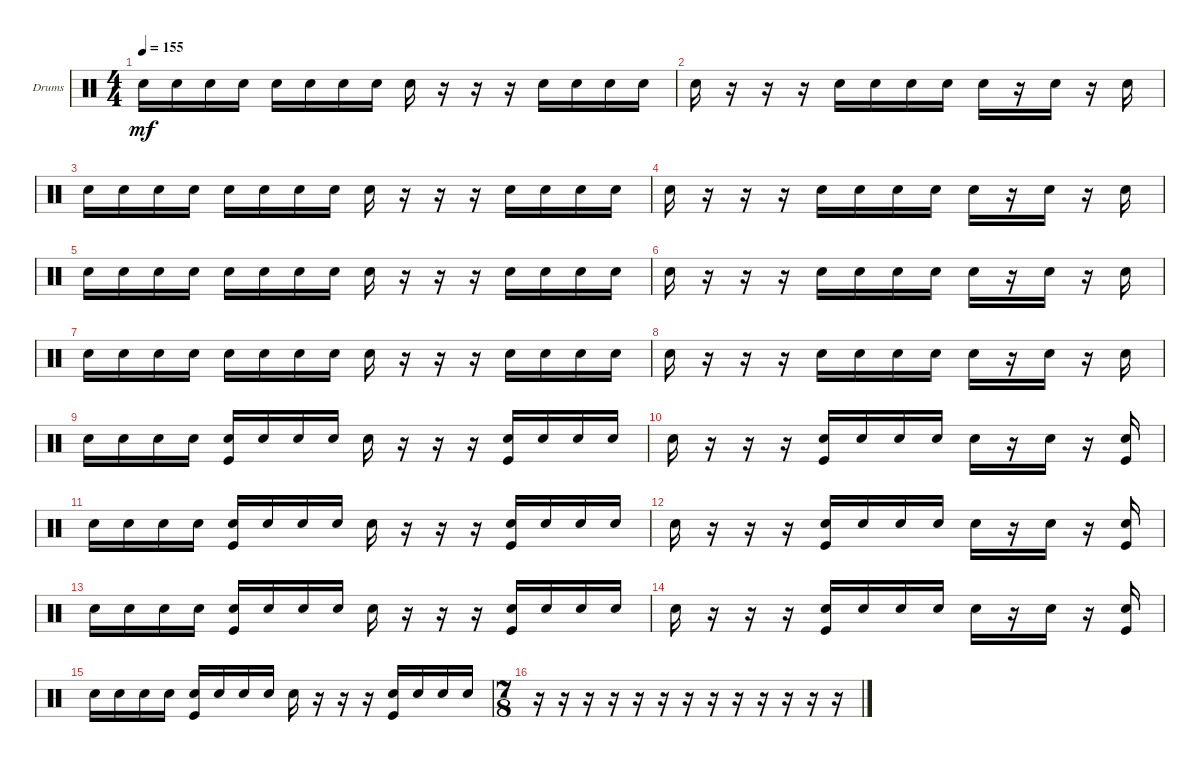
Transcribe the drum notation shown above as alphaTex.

\defaultSystemsLayout 4
\bracketExtendMode groupsimilarinstruments
\firstSystemTrackNameOrientation horizontal
\otherSystemsTrackNameOrientation horizontal
\track ("Drumkit" "Drums") {instrument percussion}
\staff {score}
\articulation defaults
\ts (4 4)
\tempo 155
\clef neutral
\ks c "Snare (hit) 2".16{dy mf} "Snare (hit) 2".16 "Snare (hit) 2".16 "Snare (hit) 2".16 "Snare (hit) 2".16 "Snare (hit) 2".16 "Snare (hit) 2".16 "Snare (hit) 2".16 "Snare (hit) 2".16
r.16 r.16 r.16 "Snare (hit) 2".16 "Snare (hit) 2".16 "Snare (hit) 2".16 "Snare (hit) 2".16 |
"Snare (hit) 2".16 r.16 r.16 r.16 "Snare (hit) 2".16 "Snare (hit) 2".16 "Snare (hit) 2".16 "Snare (hit) 2".16 "Snare (hit) 2".16 r.16 "Snare (hit) 2".16 r.16 "Snare (hit) 2".16 |
"Snare (hit) 2".16 "Snare (hit) 2".16 "Snare (hit) 2".16 "Snare (hit) 2".16 "Snare (hit) 2".16 "Snare (hit) 2".16 "Snare (hit) 2".16 "Snare (hit) 2".16 "Snare (hit) 2".16 r.16 r.16 r.16 "Snare (hit) 2".16 "Snare (hit) 2".16 "Snare (hit) 2".16 "Snare (hit) 2".16 |
"Snare (hit) 2".16 r.16 r.16 r.16 "Snare (hit) 2".16 "Snare (hit) 2".16 "Snare (hit) 2".16 "Snare (hit) 2".16 "Snare (hit) 2".16 r.16 "Snare (hit) 2".16 r.16 "Snare (hit) 2".16 |
"Snare (hit) 2".16 "Snare (hit) 2".16 "Snare (hit) 2".16 "Snare (hit) 2".16 "Snare (hit) 2".16 "Snare (hit) 2".16 "Snare (hit) 2".16 "Snare (hit) 2".16 "Snare (hit) 2".16 r.16 r.16 r.16 "Snare (hit) 2".16 "Snare (hit) 2".16 "Snare (hit) 2".16 "Snare (hit) 2".16 |
"Snare (hit) 2".16 r.16 r.16 r.16 "Snare (hit) 2".16 "Snare (hit) 2".16 "Snare (hit) 2".16 "Snare (hit) 2".16 "Snare (hit) 2".16 r.16 "Snare (hit) 2".16 r.16 "Snare (hit) 2".16 |
"Snare (hit) 2".16 "Snare (hit) 2".16 "Snare (hit) 2".16 "Snare (hit) 2".16 "Snare (hit) 2".16 "Snare (hit) 2".16 "Snare (hit) 2".16 "Snare (hit) 2".16 "Snare (hit) 2".16 r.16 r.16 r.16 "Snare (hit) 2".16 "Snare (hit) 2".16 "Snare (hit) 2".16 "Snare (hit) 2".16 |
"Snare (hit) 2".16 r.16 r.16 r.16 "Snare (hit) 2".16 "Snare (hit) 2".16 "Snare (hit) 2".16 "Snare (hit) 2".16 "Snare (hit) 2".16 r.16 "Snare (hit) 2".16 r.16 "Snare (hit) 2".16 |
"Snare (hit) 2".16 "Snare (hit) 2".16 "Snare (hit) 2".16 "Snare (hit) 2".16 ("Snare (hit) 2" "Kick (hit)").16 "Snare (hit) 2".16 "Snare (hit) 2".16 "Snare (hit) 2".16 "Snare (hit) 2".16 r.16 r.16 r.16 ("Snare (hit) 2" "Kick (hit)").16 "Snare (hit) 2".16 "Snare (hit) 2".16 "Snare (hit) 2".16 |
"Snare (hit) 2".16 r.16 r.16 r.16 ("Snare (hit) 2" "Kick (hit)").16 "Snare (hit) 2".16 "Snare (hit) 2".16 "Snare (hit) 2".16 "Snare (hit) 2".16 r.16 "Snare (hit) 2".16 r.16 ("Snare (hit) 2" "Kick (hit)").16 |
"Snare (hit) 2".16 "Snare (hit) 2".16 "Snare (hit) 2".16 "Snare (hit) 2".16 ("Snare (hit) 2" "Kick (hit)").16 "Snare (hit) 2".16 "Snare (hit) 2".16 "Snare (hit) 2".16 "Snare (hit) 2".16 r.16 r.16 r.16 ("Snare (hit) 2" "Kick (hit)").16 "Snare (hit) 2".16 "Snare (hit) 2".16 "Snare (hit) 2".16 |
"Snare (hit) 2".16 r.16 r.16 r.16 ("Snare (hit) 2" "Kick (hit)").16 "Snare (hit) 2".16 "Snare (hit) 2".16 "Snare (hit) 2".16 "Snare (hit) 2".16 r.16 "Snare (hit) 2".16 r.16 ("Snare (hit) 2" "Kick (hit)").16 |
"Snare (hit) 2".16 "Snare (hit) 2".16 "Snare (hit) 2".16 "Snare (hit) 2".16 ("Snare (hit) 2" "Kick (hit)").16 "Snare (hit) 2".16 "Snare (hit) 2".16 "Snare (hit) 2".16 "Snare (hit) 2".16 r.16 r.16 r.16 ("Snare (hit) 2" "Kick (hit)").16 "Snare (hit) 2".16 "Snare (hit) 2".16 "Snare (hit) 2".16 |
"Snare (hit) 2".16 r.16 r.16 r.16 ("Snare (hit) 2" "Kick (hit)").16 "Snare (hit) 2".16 "Snare (hit) 2".16 "Snare (hit) 2".16 "Snare (hit) 2".16 r.16 "Snare (hit) 2".16 r.16 ("Snare (hit) 2" "Kick (hit)").16 |
"Snare (hit) 2".16 "Snare (hit) 2".16 "Snare (hit) 2".16 "Snare (hit) 2".16 ("Snare (hit) 2" "Kick (hit)").16 "Snare (hit) 2".16 "Snare (hit) 2".16 "Snare (hit) 2".16 "Snare (hit) 2".16 r.16 r.16 r.16 ("Snare (hit) 2" "Kick (hit)").16 "Snare (hit) 2".16 "Snare (hit) 2".16 "Snare (hit) 2".16 |
\ts (7 8)
r.16 r.16 r.16 r.16 r.16 r.16 r.16 r.16 r.16 r.16 r.16 r.16 r.16
